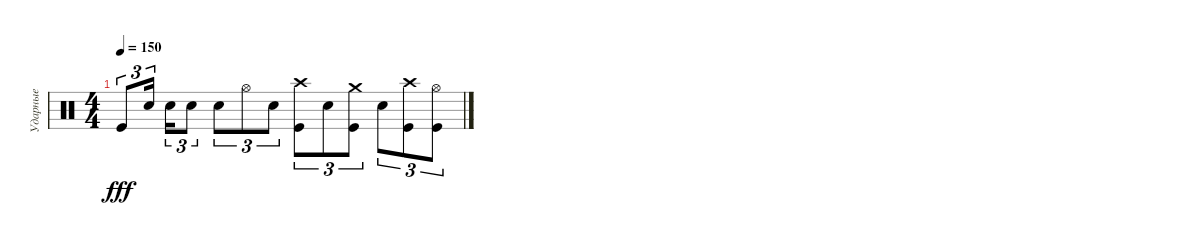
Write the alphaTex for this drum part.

\track ("Ударные" "Ударные") {instrument percussion}
\staff {score}
\articulation defaults
\ts (4 4)
\tempo 150
\clef neutral
\ks c "Kick (hit)".8{tu (3 2) dy fff} "Electric Snare (hit)".16{tu (3 2) beam splitsecondary} "Electric Snare (hit)".16{tu (3 2)} "Electric Snare (hit)".8{tu (3 2)} "Electric Snare (hit)".8{tu (3 2)} "Hi-Hat (open)".8{tu (3 2)} "Electric Snare (hit)".8{tu (3 2)}
("Crash high (hit)" "Kick (hit)").8{tu (3 2)} "Electric Snare (hit)".8{tu (3 2)} ("Crash medium (hit)" "Kick (hit)").8{tu (3 2)} "Electric Snare (hit)".8{tu (3 2)} ("Crash high (hit)" "Kick (hit)").8{tu (3 2)} ("Hi-Hat (open)" "Kick (hit)").8{tu (3 2)}
